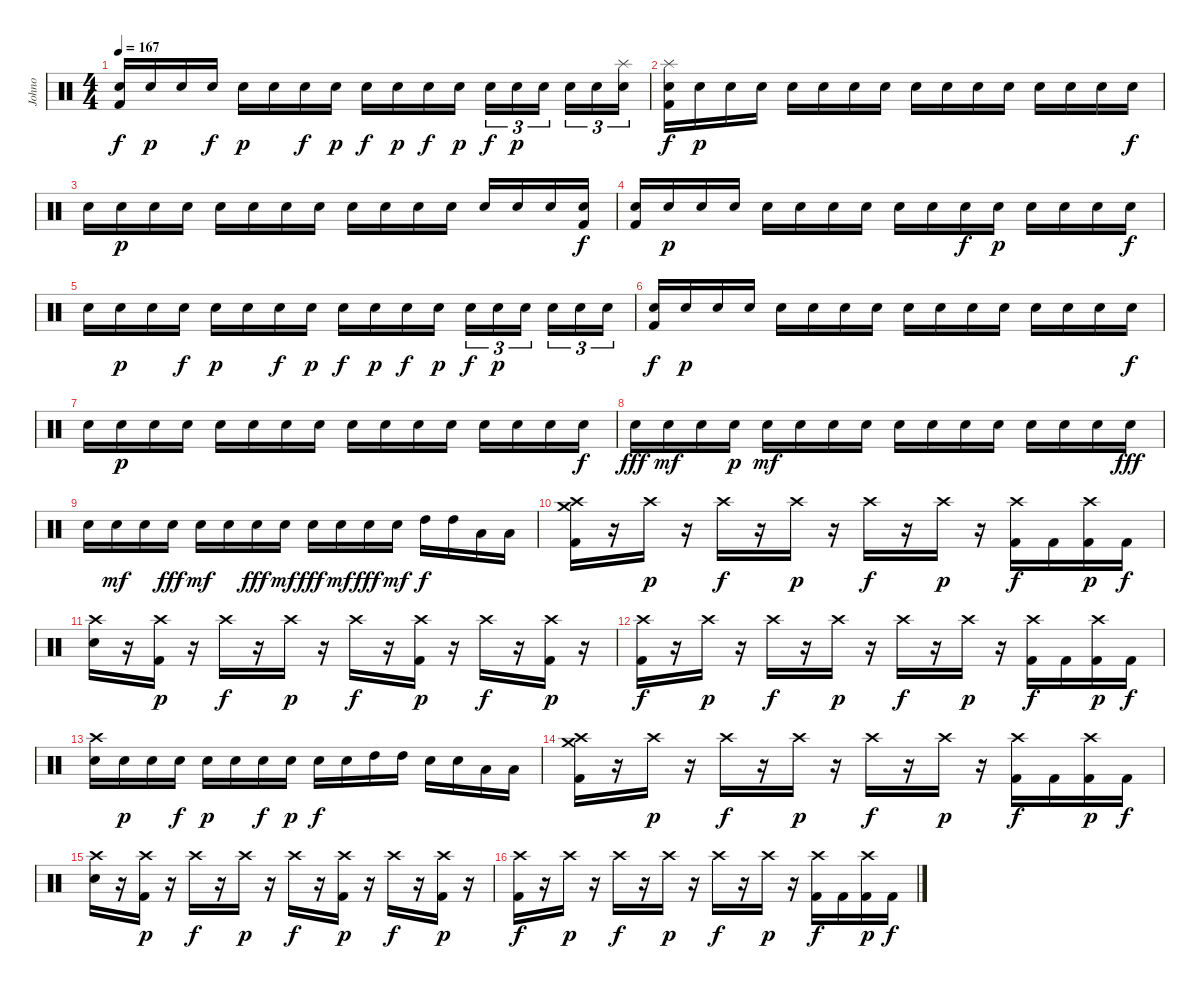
\track ("Johno" "Johno") {instrument percussion}
\staff {score}
\articulation defaults
\ts (4 4)
\tempo 167
\clef neutral
\ks c
("Electric Snare (hit)" "Kick (hit) 2").16{dy f} "Electric Snare (hit)".16{dy p} "Electric Snare (hit)".16 "Electric Snare (hit)".16{dy f} "Electric Snare (hit)".16{dy p} "Electric Snare (hit)".16 "Electric Snare (hit)".16{dy f} "Electric Snare (hit)".16{dy p} "Electric Snare (hit)".16{dy f} "Electric Snare (hit)".16{dy p} "Electric Snare (hit)".16{dy f} "Electric Snare (hit)".16{dy p} "Electric Snare (hit)".16{tu (3 2) dy f} "Electric Snare (hit)".16{tu (3 2) dy p} "Electric Snare (hit)".16{tu (3 2) beam splitsecondary} "Electric Snare (hit)".16{tu (3 2)} "Electric Snare (hit)".16{tu (3 2)} ("Splash (hit)" "Electric Snare (hit)").16{tu (3 2)} |
("Splash (hit)" "Electric Snare (hit)" "Kick (hit) 2").16{dy f} "Electric Snare (hit)".16{dy p} "Electric Snare (hit)".16 "Electric Snare (hit)".16 "Electric Snare (hit)".16 "Electric Snare (hit)".16 "Electric Snare (hit)".16 "Electric Snare (hit)".16 "Electric Snare (hit)".16 "Electric Snare (hit)".16 "Electric Snare (hit)".16 "Electric Snare (hit)".16 "Electric Snare (hit)".16 "Electric Snare (hit)".16 "Electric Snare (hit)".16 "Electric Snare (hit)".16{dy f} |
"Electric Snare (hit)".16 "Electric Snare (hit)".16{dy p} "Electric Snare (hit)".16 "Electric Snare (hit)".16 "Electric Snare (hit)".16 "Electric Snare (hit)".16 "Electric Snare (hit)".16 "Electric Snare (hit)".16 "Electric Snare (hit)".16 "Electric Snare (hit)".16 "Electric Snare (hit)".16 "Electric Snare (hit)".16 "Electric Snare (hit)".16 "Electric Snare (hit)".16 "Electric Snare (hit)".16 ("Electric Snare (hit)" "Kick (hit) 2").16{dy f} |
("Electric Snare (hit)" "Kick (hit) 2").16 "Electric Snare (hit)".16{dy p} "Electric Snare (hit)".16 "Electric Snare (hit)".16 "Electric Snare (hit)".16 "Electric Snare (hit)".16 "Electric Snare (hit)".16 "Electric Snare (hit)".16 "Electric Snare (hit)".16 "Electric Snare (hit)".16 "Electric Snare (hit)".16{dy f} "Electric Snare (hit)".16{dy p} "Electric Snare (hit)".16 "Electric Snare (hit)".16 "Electric Snare (hit)".16 "Electric Snare (hit)".16{dy f} |
"Electric Snare (hit)".16 "Electric Snare (hit)".16{dy p} "Electric Snare (hit)".16 "Electric Snare (hit)".16{dy f} "Electric Snare (hit)".16{dy p} "Electric Snare (hit)".16 "Electric Snare (hit)".16{dy f} "Electric Snare (hit)".16{dy p} "Electric Snare (hit)".16{dy f} "Electric Snare (hit)".16{dy p} "Electric Snare (hit)".16{dy f} "Electric Snare (hit)".16{dy p} "Electric Snare (hit)".16{tu (3 2) dy f} "Electric Snare (hit)".16{tu (3 2) dy p} "Electric Snare (hit)".16{tu (3 2) beam splitsecondary} "Electric Snare (hit)".16{tu (3 2)} "Electric Snare (hit)".16{tu (3 2)} "Electric Snare (hit)".16{tu (3 2)} |
("Electric Snare (hit)" "Kick (hit) 2").16{dy f} "Electric Snare (hit)".16{dy p} "Electric Snare (hit)".16 "Electric Snare (hit)".16 "Electric Snare (hit)".16 "Electric Snare (hit)".16 "Electric Snare (hit)".16 "Electric Snare (hit)".16 "Electric Snare (hit)".16 "Electric Snare (hit)".16 "Electric Snare (hit)".16 "Electric Snare (hit)".16 "Electric Snare (hit)".16 "Electric Snare (hit)".16 "Electric Snare (hit)".16 "Electric Snare (hit)".16{dy f} |
"Electric Snare (hit)".16 "Electric Snare (hit)".16{dy p} "Electric Snare (hit)".16 "Electric Snare (hit)".16 "Electric Snare (hit)".16 "Electric Snare (hit)".16 "Electric Snare (hit)".16 "Electric Snare (hit)".16 "Electric Snare (hit)".16 "Electric Snare (hit)".16 "Electric Snare (hit)".16 "Electric Snare (hit)".16 "Electric Snare (hit)".16 "Electric Snare (hit)".16 "Electric Snare (hit)".16 "Electric Snare (hit)".16{dy f} |
"Electric Snare (hit)".16{dy fff} "Electric Snare (hit)".16{dy mf} "Electric Snare (hit)".16 "Electric Snare (hit)".16{dy p} "Electric Snare (hit)".16{dy mf} "Electric Snare (hit)".16 "Electric Snare (hit)".16 "Electric Snare (hit)".16 "Electric Snare (hit)".16 "Electric Snare (hit)".16 "Electric Snare (hit)".16 "Electric Snare (hit)".16 "Electric Snare (hit)".16 "Electric Snare (hit)".16 "Electric Snare (hit)".16 "Electric Snare (hit)".16{dy fff} |
"Electric Snare (hit)".16 "Electric Snare (hit)".16{dy mf} "Electric Snare (hit)".16 "Electric Snare (hit)".16{dy fff} "Electric Snare (hit)".16{dy mf} "Electric Snare (hit)".16 "Electric Snare (hit)".16{dy fff} "Electric Snare (hit)".16{dy mf} "Electric Snare (hit)".16{dy fff} "Electric Snare (hit)".16{dy mf} "Electric Snare (hit)".16{dy fff} "Electric Snare (hit)".16{dy mf} "High Tom (hit)".16{dy f} "High Tom (hit)".16 "Low Floor Tom (hit)".16 "Low Floor Tom (hit)".16 |
("Crash medium (hit)" "Crash high (hit)" "Kick (hit) 2").16 r.16 "Crash high (hit)".16{dy p} r.16 "Crash high (hit)".16{dy f} r.16 "Crash high (hit)".16{dy p} r.16 "Crash high (hit)".16{dy f} r.16 "Crash high (hit)".16{dy p} r.16 ("Crash high (hit)" "Kick (hit) 2").16{dy f} "Kick (hit) 2".16 ("Crash high (hit)" "Kick (hit) 2").16{dy p} "Kick (hit) 2".16{dy f} |
("Crash high (hit)" "Electric Snare (hit)").16 r.16 ("Crash high (hit)" "Kick (hit) 2").16{dy p} r.16 "Crash high (hit)".16{dy f} r.16 "Crash high (hit)".16{dy p} r.16 "Crash high (hit)".16{dy f} r.16 ("Crash high (hit)" "Kick (hit) 2").16{dy p} r.16 "Crash high (hit)".16{dy f} r.16 ("Crash high (hit)" "Kick (hit) 2").16{dy p} r.16 |
("Crash high (hit)" "Kick (hit) 2").16{dy f} r.16 "Crash high (hit)".16{dy p} r.16 "Crash high (hit)".16{dy f} r.16 "Crash high (hit)".16{dy p} r.16 "Crash high (hit)".16{dy f} r.16 "Crash high (hit)".16{dy p} r.16 ("Crash high (hit)" "Kick (hit) 2").16{dy f} "Kick (hit) 2".16 ("Crash high (hit)" "Kick (hit) 2").16{dy p} "Kick (hit) 2".16{dy f} |
("Crash high (hit)" "Electric Snare (hit)").16 "Electric Snare (hit)".16{dy p} "Electric Snare (hit)".16 "Electric Snare (hit)".16{dy f} "Electric Snare (hit)".16{dy p} "Electric Snare (hit)".16 "Electric Snare (hit)".16{dy f} "Electric Snare (hit)".16{dy p} "Electric Snare (hit)".16{dy f} "Electric Snare (hit)".16 "High Tom (hit)".16 "High Tom (hit)".16 "Electric Snare (hit)".16 "Electric Snare (hit)".16 "Low Floor Tom (hit)".16 "Low Floor Tom (hit)".16 |
("Crash medium (hit)" "Crash high (hit)" "Kick (hit) 2").16 r.16 "Crash high (hit)".16{dy p} r.16 "Crash high (hit)".16{dy f} r.16 "Crash high (hit)".16{dy p} r.16 "Crash high (hit)".16{dy f} r.16 "Crash high (hit)".16{dy p} r.16 ("Crash high (hit)" "Kick (hit) 2").16{dy f} "Kick (hit) 2".16 ("Crash high (hit)" "Kick (hit) 2").16{dy p} "Kick (hit) 2".16{dy f} |
("Crash high (hit)" "Electric Snare (hit)").16 r.16 ("Crash high (hit)" "Kick (hit) 2").16{dy p} r.16 "Crash high (hit)".16{dy f} r.16 "Crash high (hit)".16{dy p} r.16 "Crash high (hit)".16{dy f} r.16 ("Crash high (hit)" "Kick (hit) 2").16{dy p} r.16 "Crash high (hit)".16{dy f} r.16 ("Crash high (hit)" "Kick (hit) 2").16{dy p} r.16 |
("Crash high (hit)" "Kick (hit) 2").16{dy f} r.16 "Crash high (hit)".16{dy p} r.16 "Crash high (hit)".16{dy f} r.16 "Crash high (hit)".16{dy p} r.16 "Crash high (hit)".16{dy f} r.16 "Crash high (hit)".16{dy p} r.16 ("Crash high (hit)" "Kick (hit) 2").16{dy f} "Kick (hit) 2".16 ("Crash high (hit)" "Kick (hit) 2").16{dy p} "Kick (hit) 2".16{dy f}
